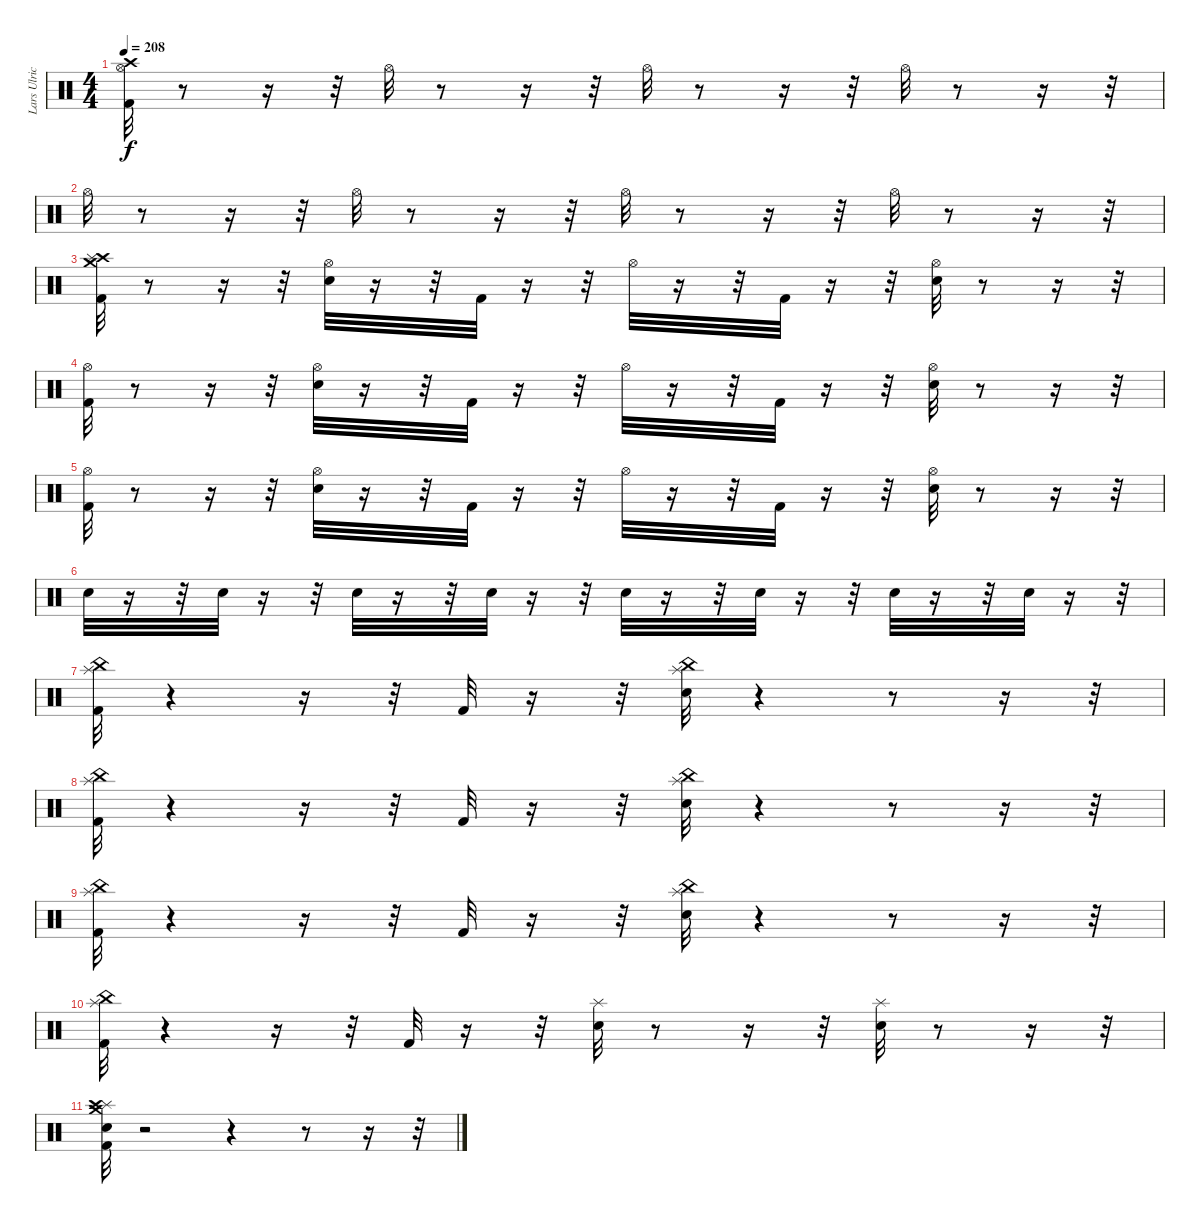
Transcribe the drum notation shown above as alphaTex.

\track ("Lars Ulrich (Drums)" "Lars Ulric") {instrument percussion}
\staff {score}
\articulation defaults
\ts (4 4)
\tempo 208
\clef neutral
\ks c
("Hi-Hat (open)" "Crash high (hit)" "Kick (hit) 2").32{dy f} r.8 r.16 r.32 "Hi-Hat (open)".32 r.8 r.16 r.32 "Hi-Hat (open)".32 r.8 r.16 r.32 "Hi-Hat (open)".32 r.8 r.16 r.32 |
"Hi-Hat (open)".32 r.8 r.16 r.32 "Hi-Hat (open)".32 r.8 r.16 r.32 "Hi-Hat (open)".32 r.8 r.16 r.32 "Hi-Hat (open)".32 r.8 r.16 r.32 |
("Kick (hit) 2" "Crash high (hit)" "Crash medium (hit)" "Splash (hit)").32 r.8 r.16 r.32 ("Snare (hit) 2" "Hi-Hat (open)").32 r.16 r.32 "Kick (hit) 2".32 r.16 r.32 "Hi-Hat (open)".32 r.16 r.32 "Kick (hit) 2".32 r.16 r.32 ("Snare (hit) 2" "Hi-Hat (open)").32 r.8 r.16 r.32 |
("Kick (hit) 2" "Hi-Hat (open)").32 r.8 r.16 r.32 ("Snare (hit) 2" "Hi-Hat (open)").32 r.16 r.32 "Kick (hit) 2".32 r.16 r.32 "Hi-Hat (open)".32 r.16 r.32 "Kick (hit) 2".32 r.16 r.32 ("Snare (hit) 2" "Hi-Hat (open)").32 r.8 r.16 r.32 |
("Kick (hit) 2" "Hi-Hat (open)").32 r.8 r.16 r.32 ("Snare (hit) 2" "Hi-Hat (open)").32 r.16 r.32 "Kick (hit) 2".32 r.16 r.32 "Hi-Hat (open)".32 r.16 r.32 "Kick (hit) 2".32 r.16 r.32 ("Snare (hit) 2" "Hi-Hat (open)").32 r.8 r.16 r.32 |
"Snare (hit) 2".32 r.16 r.32 "Snare (hit) 2".32 r.16 r.32 "Snare (hit) 2".32 r.16 r.32 "Snare (hit) 2".32 r.16 r.32 "Snare (hit) 2".32 r.16 r.32 "Snare (hit) 2".32 r.16 r.32 "Snare (hit) 2".32 r.16 r.32 "Snare (hit) 2".32 r.16 r.32 |
("Kick (hit) 2" "China (hit)" "Splash (hit)").32 r.4 r.16 r.32 "Kick (hit) 2".32 r.16 r.32 ("Snare (hit) 2" "China (hit)" "Splash (hit)").32 r.4 r.8 r.16 r.32 |
("Kick (hit) 2" "China (hit)" "Splash (hit)").32 r.4 r.16 r.32 "Kick (hit) 2".32 r.16 r.32 ("Snare (hit) 2" "China (hit)" "Splash (hit)").32 r.4 r.8 r.16 r.32 |
("Kick (hit) 2" "China (hit)" "Splash (hit)").32 r.4 r.16 r.32 "Kick (hit) 2".32 r.16 r.32 ("Snare (hit) 2" "China (hit)" "Splash (hit)").32 r.4 r.8 r.16 r.32 |
("Kick (hit) 2" "China (hit)" "Splash (hit)").32 r.4 r.16 r.32 "Kick (hit) 2".32 r.16 r.32 ("Snare (hit) 2" "Splash (hit)").32 r.8 r.16 r.32 ("Splash (hit)" "Snare (hit) 2").32 r.8 r.16 r.32 |
("Splash (hit)" "Crash medium (hit)" "Snare (hit) 2" "Kick (hit) 2" "Crash high (hit)").32 r.2 r.4 r.8 r.16 r.32
